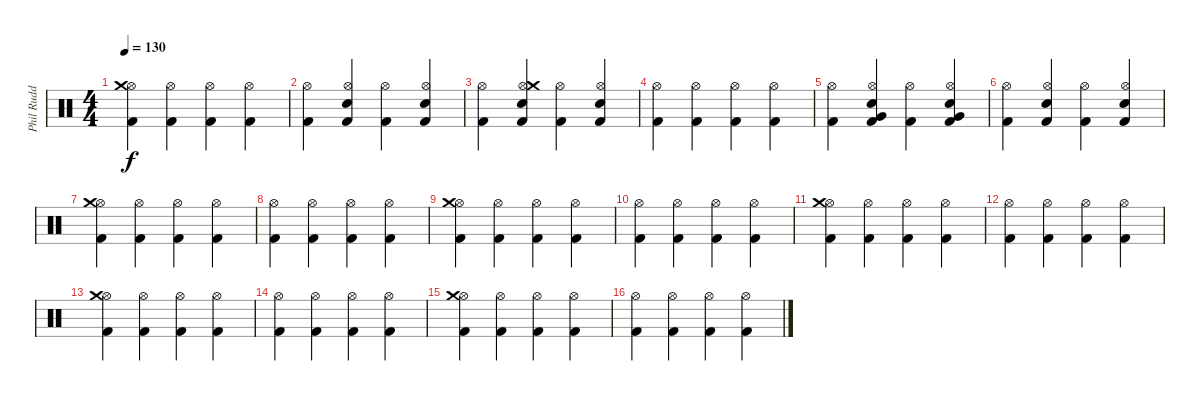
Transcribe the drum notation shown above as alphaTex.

\track ("Phil Rudd" "Phil Rudd") {instrument percussion}
\staff {score}
\articulation defaults
\ts (4 4)
\tempo 130
\clef neutral
\ks c
("Kick (hit) 2" "Hi-Hat (open)" "Crash medium (hit)").4{dy f} ("Kick (hit) 2" "Hi-Hat (open)").4 ("Kick (hit) 2" "Hi-Hat (open)").4 ("Kick (hit) 2" "Hi-Hat (open)").4 |
("Kick (hit) 2" "Hi-Hat (open)").4 ("Kick (hit) 2" "Hi-Hat (open)" "Snare (hit) 2").4 ("Kick (hit) 2" "Hi-Hat (open)").4 ("Kick (hit) 2" "Hi-Hat (open)" "Snare (hit) 2").4 |
("Kick (hit) 2" "Hi-Hat (open)").4 ("Kick (hit) 2" "Hi-Hat (open)" "Crash medium (hit)" "Snare (hit) 2").4 ("Kick (hit) 2" "Hi-Hat (open)").4 ("Kick (hit) 2" "Hi-Hat (open)" "Snare (hit) 2").4 |
("Kick (hit) 2" "Hi-Hat (open)").4 ("Kick (hit) 2" "Hi-Hat (open)").4 ("Kick (hit) 2" "Hi-Hat (open)").4 ("Kick (hit) 2" "Hi-Hat (open)").4 |
("Kick (hit) 2" "Hi-Hat (open)").4 ("Kick (hit) 2" "Hi-Hat (open)" "Snare (hit) 2" "Very Low Tom (hit)").4 ("Kick (hit) 2" "Hi-Hat (open)").4 ("Kick (hit) 2" "Hi-Hat (open)" "Snare (hit) 2" "Very Low Tom (hit)").4 |
("Kick (hit) 2" "Hi-Hat (open)").4 ("Kick (hit) 2" "Hi-Hat (open)" "Snare (hit) 2").4 ("Kick (hit) 2" "Hi-Hat (open)").4 ("Kick (hit) 2" "Hi-Hat (open)" "Snare (hit) 2").4 |
("Kick (hit) 2" "Hi-Hat (open)" "Crash medium (hit)").4 ("Kick (hit) 2" "Hi-Hat (open)").4 ("Kick (hit) 2" "Hi-Hat (open)").4 ("Kick (hit) 2" "Hi-Hat (open)").4 |
("Kick (hit) 2" "Hi-Hat (open)").4 ("Kick (hit) 2" "Hi-Hat (open)").4 ("Kick (hit) 2" "Hi-Hat (open)").4 ("Kick (hit) 2" "Hi-Hat (open)").4 |
("Kick (hit) 2" "Hi-Hat (open)" "Crash medium (hit)").4 ("Kick (hit) 2" "Hi-Hat (open)").4 ("Kick (hit) 2" "Hi-Hat (open)").4 ("Kick (hit) 2" "Hi-Hat (open)").4 |
("Kick (hit) 2" "Hi-Hat (open)").4 ("Kick (hit) 2" "Hi-Hat (open)").4 ("Kick (hit) 2" "Hi-Hat (open)").4 ("Kick (hit) 2" "Hi-Hat (open)").4 |
("Kick (hit) 2" "Hi-Hat (open)" "Crash medium (hit)").4 ("Kick (hit) 2" "Hi-Hat (open)").4 ("Kick (hit) 2" "Hi-Hat (open)").4 ("Kick (hit) 2" "Hi-Hat (open)").4 |
("Kick (hit) 2" "Hi-Hat (open)").4 ("Kick (hit) 2" "Hi-Hat (open)").4 ("Kick (hit) 2" "Hi-Hat (open)").4 ("Kick (hit) 2" "Hi-Hat (open)").4 |
("Kick (hit) 2" "Hi-Hat (open)" "Crash medium (hit)").4 ("Kick (hit) 2" "Hi-Hat (open)").4 ("Kick (hit) 2" "Hi-Hat (open)").4 ("Kick (hit) 2" "Hi-Hat (open)").4 |
("Kick (hit) 2" "Hi-Hat (open)").4 ("Kick (hit) 2" "Hi-Hat (open)").4 ("Kick (hit) 2" "Hi-Hat (open)").4 ("Kick (hit) 2" "Hi-Hat (open)").4 |
("Kick (hit) 2" "Hi-Hat (open)" "Crash medium (hit)").4 ("Kick (hit) 2" "Hi-Hat (open)").4 ("Kick (hit) 2" "Hi-Hat (open)").4 ("Kick (hit) 2" "Hi-Hat (open)").4 |
("Kick (hit) 2" "Hi-Hat (open)").4 ("Kick (hit) 2" "Hi-Hat (open)").4 ("Kick (hit) 2" "Hi-Hat (open)").4 ("Kick (hit) 2" "Hi-Hat (open)").4
